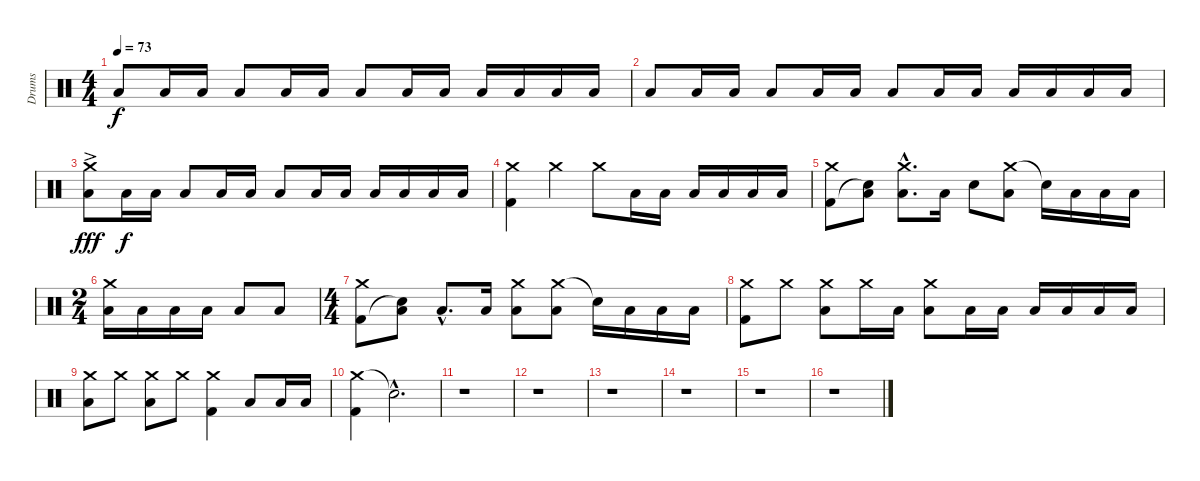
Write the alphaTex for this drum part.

\track ("Drums" "Drums") {instrument percussion}
\staff {score}
\articulation defaults
\ts (4 4)
\tempo 73
\clef neutral
\ks c "Low Tom (hit)".8{dy f} "Low Tom (hit)".16 "Low Tom (hit)".16 "Low Tom (hit)".8 "Low Tom (hit)".16 "Low Tom (hit)".16 "Low Tom (hit)".8 "Low Tom (hit)".16 "Low Tom (hit)".16 "Low Tom (hit)".16 "Low Tom (hit)".16 "Low Tom (hit)".16 "Low Tom (hit)".16
|
"Low Tom (hit)".8 "Low Tom (hit)".16 "Low Tom (hit)".16 "Low Tom (hit)".8 "Low Tom (hit)".16 "Low Tom (hit)".16 "Low Tom (hit)".8 "Low Tom (hit)".16 "Low Tom (hit)".16 "Low Tom (hit)".16 "Low Tom (hit)".16 "Low Tom (hit)".16 "Low Tom (hit)".16 |
("Crash medium (hit)"{ac} "Low Tom (hit)").8{dy fff} "Low Tom (hit)".16{dy f} "Low Tom (hit)".16 "Low Tom (hit)".8 "Low Tom (hit)".16 "Low Tom (hit)".16 "Low Tom (hit)".8 "Low Tom (hit)".16 "Low Tom (hit)".16 "Low Tom (hit)".16 "Low Tom (hit)".16 "Low Tom (hit)".16 "Low Tom (hit)".16 |
("Crash medium (hit)" "Kick (hit) 2").4 "Crash medium (hit)".4 "Crash medium (hit)".8 "Low Tom (hit)".16 "Low Tom (hit)".16 "Low Tom (hit)".16 "Low Tom (hit)".16 "Low Tom (hit)".16 "Low Tom (hit)".16 |
("Crash medium (hit)" "Kick (hit) 2").8 ("Low Tom (hit)" "Snare (hit)"{t}).8 ("Crash medium (hit)"{hac} "Low Tom (hit)"{hac}).8{d} "Low Tom (hit)".16 "Snare (hit) 2".8 ("Crash medium (hit)" "Low Tom (hit)").8 "Snare (hit)"{t}.16 "Low Tom (hit)".16 "Low Tom (hit)".16 "Low Tom (hit)".16 |
\ts (2 4)
("Crash medium (hit)" "Low Tom (hit)").16 "Low Tom (hit)".16 "Low Tom (hit)".16 "Low Tom (hit)".16 "Low Tom (hit)".8 "Low Tom (hit)".8 |
\ts (4 4)
("Crash medium (hit)" "Kick (hit) 2").8 ("Low Tom (hit)" "Snare (hit)"{t}).8 "Low Tom (hit)"{hac}.8{d} "Low Tom (hit)".16 ("Crash medium (hit)" "Low Tom (hit)").8 ("Crash medium (hit)" "Low Tom (hit)").8 "Snare (hit)"{t}.16 "Low Tom (hit)".16 "Low Tom (hit)".16 "Low Tom (hit)".16 |
("Crash medium (hit)" "Kick (hit) 2").8 "Crash medium (hit)".8 ("Crash medium (hit)" "Low Tom (hit)").8 "Crash medium (hit)".16 "Low Tom (hit)".16 ("Crash medium (hit)" "Low Tom (hit)").8 "Low Tom (hit)".16 "Low Tom (hit)".16 "Low Tom (hit)".16 "Low Tom (hit)".16 "Low Tom (hit)".16 "Low Tom (hit)".16 |
("Crash medium (hit)" "Low Tom (hit)").8 "Crash medium (hit)".8 ("Crash medium (hit)" "Low Tom (hit)").8 "Crash medium (hit)".8 ("Crash medium (hit)" "Kick (hit) 2").4 "Low Tom (hit)".8 "Low Tom (hit)".16 "Low Tom (hit)".16 |
("Crash medium (hit)" "Kick (hit) 2").4 "Snare (hit)"{hac t}.2{d} |
r.1 |
r.1 |
r.1 |
r.1 |
r.1 |
r.1
